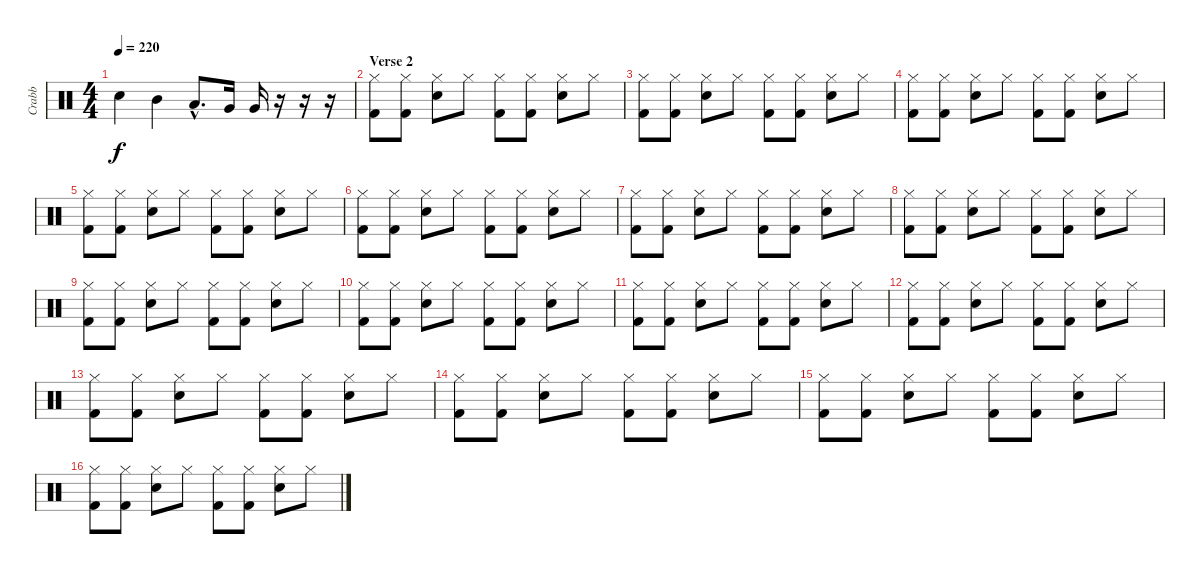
\track ("Crabb" "Crabb") {instrument percussion}
\staff {score}
\articulation defaults
\ts (4 4)
\tempo 220
\clef neutral
\ks c "Electric Snare (hit)".4{dy f} "Mid Tom (hit)".4 "Low Tom (hit)"{hac}.8{d} "Very Low Tom (hit)".16 "Very Low Tom (hit)".16
r.16 r.16 r.16 |
\section ("" "Verse 2")
("Hi-Hat (closed)" "Kick (hit) 2").8 ("Hi-Hat (closed)" "Kick (hit) 2").8 ("Hi-Hat (closed)" "Electric Snare (hit)").8 "Hi-Hat (closed)".8 ("Hi-Hat (closed)" "Kick (hit) 2").8 ("Hi-Hat (closed)" "Kick (hit) 2").8 ("Hi-Hat (closed)" "Electric Snare (hit)").8 "Hi-Hat (closed)".8 |
("Hi-Hat (closed)" "Kick (hit) 2").8 ("Hi-Hat (closed)" "Kick (hit) 2").8 ("Hi-Hat (closed)" "Electric Snare (hit)").8 "Hi-Hat (closed)".8 ("Hi-Hat (closed)" "Kick (hit) 2").8 ("Hi-Hat (closed)" "Kick (hit) 2").8 ("Hi-Hat (closed)" "Electric Snare (hit)").8 "Hi-Hat (closed)".8 |
("Hi-Hat (closed)" "Kick (hit) 2").8 ("Hi-Hat (closed)" "Kick (hit) 2").8 ("Hi-Hat (closed)" "Electric Snare (hit)").8 "Hi-Hat (closed)".8 ("Hi-Hat (closed)" "Kick (hit) 2").8 ("Hi-Hat (closed)" "Kick (hit) 2").8 ("Hi-Hat (closed)" "Electric Snare (hit)").8 "Hi-Hat (closed)".8 |
("Hi-Hat (closed)" "Kick (hit) 2").8 ("Hi-Hat (closed)" "Kick (hit) 2").8 ("Hi-Hat (closed)" "Electric Snare (hit)").8 "Hi-Hat (closed)".8 ("Hi-Hat (closed)" "Kick (hit) 2").8 ("Hi-Hat (closed)" "Kick (hit) 2").8 ("Hi-Hat (closed)" "Electric Snare (hit)").8 "Hi-Hat (closed)".8 |
("Hi-Hat (closed)" "Kick (hit) 2").8 ("Hi-Hat (closed)" "Kick (hit) 2").8 ("Hi-Hat (closed)" "Electric Snare (hit)").8 "Hi-Hat (closed)".8 ("Hi-Hat (closed)" "Kick (hit) 2").8 ("Hi-Hat (closed)" "Kick (hit) 2").8 ("Hi-Hat (closed)" "Electric Snare (hit)").8 "Hi-Hat (closed)".8 |
("Hi-Hat (closed)" "Kick (hit) 2").8 ("Hi-Hat (closed)" "Kick (hit) 2").8 ("Hi-Hat (closed)" "Electric Snare (hit)").8 "Hi-Hat (closed)".8 ("Hi-Hat (closed)" "Kick (hit) 2").8 ("Hi-Hat (closed)" "Kick (hit) 2").8 ("Hi-Hat (closed)" "Electric Snare (hit)").8 "Hi-Hat (closed)".8 |
("Hi-Hat (closed)" "Kick (hit) 2").8 ("Hi-Hat (closed)" "Kick (hit) 2").8 ("Hi-Hat (closed)" "Electric Snare (hit)").8 "Hi-Hat (closed)".8 ("Hi-Hat (closed)" "Kick (hit) 2").8 ("Hi-Hat (closed)" "Kick (hit) 2").8 ("Hi-Hat (closed)" "Electric Snare (hit)").8 "Hi-Hat (closed)".8 |
("Hi-Hat (closed)" "Kick (hit) 2").8 ("Hi-Hat (closed)" "Kick (hit) 2").8 ("Hi-Hat (closed)" "Electric Snare (hit)").8 "Hi-Hat (closed)".8 ("Hi-Hat (closed)" "Kick (hit) 2").8 ("Hi-Hat (closed)" "Kick (hit) 2").8 ("Hi-Hat (closed)" "Electric Snare (hit)").8 "Hi-Hat (closed)".8 |
("Hi-Hat (closed)" "Kick (hit) 2").8 ("Hi-Hat (closed)" "Kick (hit) 2").8 ("Hi-Hat (closed)" "Electric Snare (hit)").8 "Hi-Hat (closed)".8 ("Hi-Hat (closed)" "Kick (hit) 2").8 ("Hi-Hat (closed)" "Kick (hit) 2").8 ("Hi-Hat (closed)" "Electric Snare (hit)").8 "Hi-Hat (closed)".8 |
("Hi-Hat (closed)" "Kick (hit) 2").8 ("Hi-Hat (closed)" "Kick (hit) 2").8 ("Hi-Hat (closed)" "Electric Snare (hit)").8 "Hi-Hat (closed)".8 ("Hi-Hat (closed)" "Kick (hit) 2").8 ("Hi-Hat (closed)" "Kick (hit) 2").8 ("Hi-Hat (closed)" "Electric Snare (hit)").8 "Hi-Hat (closed)".8 |
("Hi-Hat (closed)" "Kick (hit) 2").8 ("Hi-Hat (closed)" "Kick (hit) 2").8 ("Hi-Hat (closed)" "Electric Snare (hit)").8 "Hi-Hat (closed)".8 ("Hi-Hat (closed)" "Kick (hit) 2").8 ("Hi-Hat (closed)" "Kick (hit) 2").8 ("Hi-Hat (closed)" "Electric Snare (hit)").8 "Hi-Hat (closed)".8 |
("Hi-Hat (closed)" "Kick (hit) 2").8 ("Hi-Hat (closed)" "Kick (hit) 2").8 ("Hi-Hat (closed)" "Electric Snare (hit)").8 "Hi-Hat (closed)".8 ("Hi-Hat (closed)" "Kick (hit) 2").8 ("Hi-Hat (closed)" "Kick (hit) 2").8 ("Hi-Hat (closed)" "Electric Snare (hit)").8 "Hi-Hat (closed)".8 |
("Hi-Hat (closed)" "Kick (hit) 2").8 ("Hi-Hat (closed)" "Kick (hit) 2").8 ("Hi-Hat (closed)" "Electric Snare (hit)").8 "Hi-Hat (closed)".8 ("Hi-Hat (closed)" "Kick (hit) 2").8 ("Hi-Hat (closed)" "Kick (hit) 2").8 ("Hi-Hat (closed)" "Electric Snare (hit)").8 "Hi-Hat (closed)".8 |
("Hi-Hat (closed)" "Kick (hit) 2").8 ("Hi-Hat (closed)" "Kick (hit) 2").8 ("Hi-Hat (closed)" "Electric Snare (hit)").8 "Hi-Hat (closed)".8 ("Hi-Hat (closed)" "Kick (hit) 2").8 ("Hi-Hat (closed)" "Kick (hit) 2").8 ("Hi-Hat (closed)" "Electric Snare (hit)").8 "Hi-Hat (closed)".8 |
("Hi-Hat (closed)" "Kick (hit) 2").8 ("Hi-Hat (closed)" "Kick (hit) 2").8 ("Hi-Hat (closed)" "Electric Snare (hit)").8 "Hi-Hat (closed)".8 ("Hi-Hat (closed)" "Kick (hit) 2").8 ("Hi-Hat (closed)" "Kick (hit) 2").8 ("Hi-Hat (closed)" "Electric Snare (hit)").8 "Hi-Hat (closed)".8
